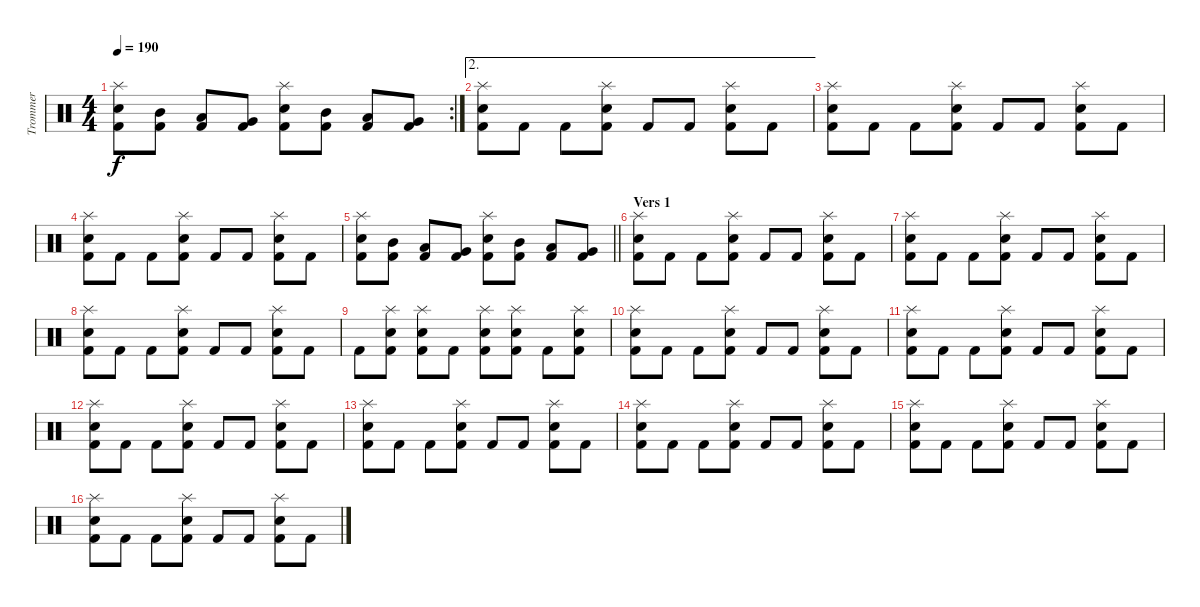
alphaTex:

\track ("Trommer" "Trommer") {instrument percussion}
\staff {score}
\articulation defaults
\rc 2
\ts (4 4)
\tempo 190
\clef neutral
\ks c
("Splash (hit)" "Snare (hit) 2" "Kick (hit) 2").8{dy f} ("Mid Tom (hit)" "Kick (hit) 2").8 ("Low Tom (hit)" "Kick (hit) 2").8 ("Very Low Tom (hit)" "Kick (hit) 2").8 ("Splash (hit)" "Snare (hit) 2" "Kick (hit) 2").8 ("Mid Tom (hit)" "Kick (hit) 2").8 ("Low Tom (hit)" "Kick (hit) 2").8 ("Very Low Tom (hit)" "Kick (hit) 2").8 |
\ae 2
("Splash (hit)" "Snare (hit) 2" "Kick (hit) 2").8 "Kick (hit) 2".8 "Kick (hit) 2".8 ("Splash (hit)" "Snare (hit) 2" "Kick (hit) 2").8 "Kick (hit) 2".8 "Kick (hit) 2".8 ("Splash (hit)" "Snare (hit) 2" "Kick (hit) 2").8 "Kick (hit) 2".8 |
("Splash (hit)" "Snare (hit) 2" "Kick (hit) 2").8 "Kick (hit) 2".8 "Kick (hit) 2".8 ("Splash (hit)" "Snare (hit) 2" "Kick (hit) 2").8 "Kick (hit) 2".8 "Kick (hit) 2".8 ("Splash (hit)" "Snare (hit) 2" "Kick (hit) 2").8 "Kick (hit) 2".8 |
("Splash (hit)" "Snare (hit) 2" "Kick (hit) 2").8 "Kick (hit) 2".8 "Kick (hit) 2".8 ("Splash (hit)" "Snare (hit) 2" "Kick (hit) 2").8 "Kick (hit) 2".8 "Kick (hit) 2".8 ("Splash (hit)" "Snare (hit) 2" "Kick (hit) 2").8 "Kick (hit) 2".8 |
\barLineRight lightlight
("Splash (hit)" "Snare (hit) 2" "Kick (hit) 2").8 ("Mid Tom (hit)" "Kick (hit) 2").8 ("Low Tom (hit)" "Kick (hit) 2").8 ("Very Low Tom (hit)" "Kick (hit) 2").8 ("Splash (hit)" "Snare (hit) 2" "Kick (hit) 2").8 ("Mid Tom (hit)" "Kick (hit) 2").8 ("Low Tom (hit)" "Kick (hit) 2").8 ("Very Low Tom (hit)" "Kick (hit) 2").8 |
\section ("" "Vers 1")
("Splash (hit)" "Snare (hit) 2" "Kick (hit) 2").8 "Kick (hit) 2".8 "Kick (hit) 2".8 ("Splash (hit)" "Snare (hit) 2" "Kick (hit) 2").8 "Kick (hit) 2".8 "Kick (hit) 2".8 ("Splash (hit)" "Snare (hit) 2" "Kick (hit) 2").8 "Kick (hit) 2".8 |
("Splash (hit)" "Snare (hit) 2" "Kick (hit) 2").8 "Kick (hit) 2".8 "Kick (hit) 2".8 ("Splash (hit)" "Snare (hit) 2" "Kick (hit) 2").8 "Kick (hit) 2".8 "Kick (hit) 2".8 ("Splash (hit)" "Snare (hit) 2" "Kick (hit) 2").8 "Kick (hit) 2".8 |
("Splash (hit)" "Snare (hit) 2" "Kick (hit) 2").8 "Kick (hit) 2".8 "Kick (hit) 2".8 ("Splash (hit)" "Snare (hit) 2" "Kick (hit) 2").8 "Kick (hit) 2".8 "Kick (hit) 2".8 ("Splash (hit)" "Snare (hit) 2" "Kick (hit) 2").8 "Kick (hit) 2".8 |
"Kick (hit) 2".8 ("Splash (hit)" "Snare (hit) 2" "Kick (hit) 2").8 ("Splash (hit)" "Snare (hit) 2" "Kick (hit) 2").8 "Kick (hit) 2".8 ("Splash (hit)" "Snare (hit) 2" "Kick (hit) 2").8 ("Splash (hit)" "Snare (hit) 2" "Kick (hit) 2").8 "Kick (hit) 2".8 ("Splash (hit)" "Snare (hit) 2" "Kick (hit) 2").8 |
("Splash (hit)" "Snare (hit) 2" "Kick (hit) 2").8 "Kick (hit) 2".8 "Kick (hit) 2".8 ("Splash (hit)" "Snare (hit) 2" "Kick (hit) 2").8 "Kick (hit) 2".8 "Kick (hit) 2".8 ("Splash (hit)" "Snare (hit) 2" "Kick (hit) 2").8 "Kick (hit) 2".8 |
("Splash (hit)" "Snare (hit) 2" "Kick (hit) 2").8 "Kick (hit) 2".8 "Kick (hit) 2".8 ("Splash (hit)" "Snare (hit) 2" "Kick (hit) 2").8 "Kick (hit) 2".8 "Kick (hit) 2".8 ("Splash (hit)" "Snare (hit) 2" "Kick (hit) 2").8 "Kick (hit) 2".8 |
("Splash (hit)" "Snare (hit) 2" "Kick (hit) 2").8 "Kick (hit) 2".8 "Kick (hit) 2".8 ("Splash (hit)" "Snare (hit) 2" "Kick (hit) 2").8 "Kick (hit) 2".8 "Kick (hit) 2".8 ("Splash (hit)" "Snare (hit) 2" "Kick (hit) 2").8 "Kick (hit) 2".8 |
("Splash (hit)" "Snare (hit) 2" "Kick (hit) 2").8 "Kick (hit) 2".8 "Kick (hit) 2".8 ("Splash (hit)" "Snare (hit) 2" "Kick (hit) 2").8 "Kick (hit) 2".8 "Kick (hit) 2".8 ("Splash (hit)" "Snare (hit) 2" "Kick (hit) 2").8 "Kick (hit) 2".8 |
("Splash (hit)" "Snare (hit) 2" "Kick (hit) 2").8 "Kick (hit) 2".8 "Kick (hit) 2".8 ("Splash (hit)" "Snare (hit) 2" "Kick (hit) 2").8 "Kick (hit) 2".8 "Kick (hit) 2".8 ("Splash (hit)" "Snare (hit) 2" "Kick (hit) 2").8 "Kick (hit) 2".8 |
("Splash (hit)" "Snare (hit) 2" "Kick (hit) 2").8 "Kick (hit) 2".8 "Kick (hit) 2".8 ("Splash (hit)" "Snare (hit) 2" "Kick (hit) 2").8 "Kick (hit) 2".8 "Kick (hit) 2".8 ("Splash (hit)" "Snare (hit) 2" "Kick (hit) 2").8 "Kick (hit) 2".8 |
("Splash (hit)" "Snare (hit) 2" "Kick (hit) 2").8 "Kick (hit) 2".8 "Kick (hit) 2".8 ("Splash (hit)" "Snare (hit) 2" "Kick (hit) 2").8 "Kick (hit) 2".8 "Kick (hit) 2".8 ("Splash (hit)" "Snare (hit) 2" "Kick (hit) 2").8 "Kick (hit) 2".8
